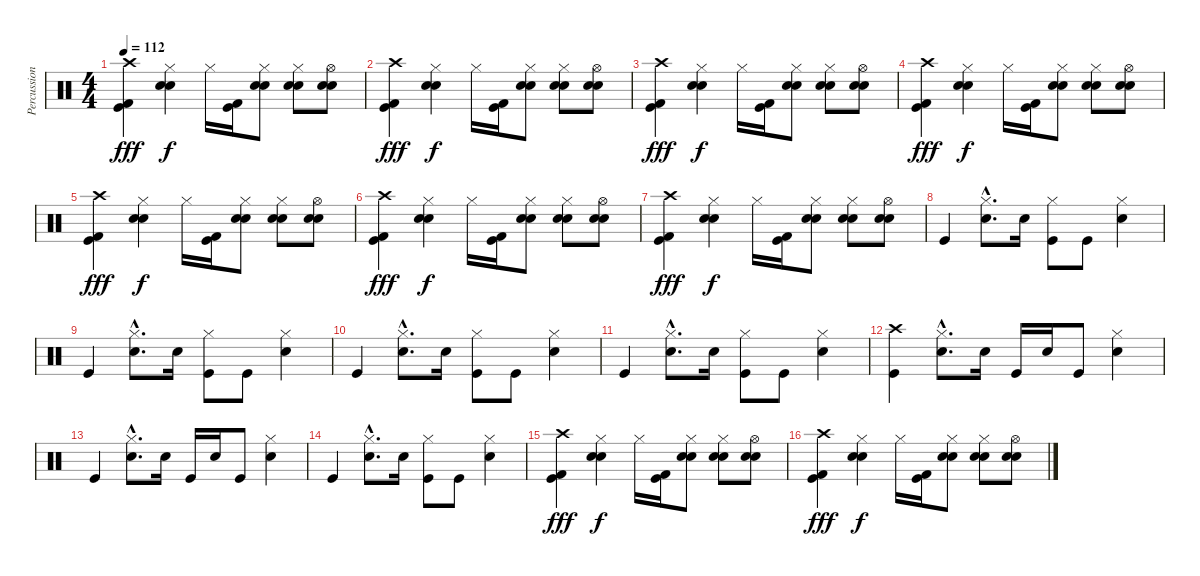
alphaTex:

\track ("Percussions" "Percussion") {instrument percussion}
\staff {score}
\articulation defaults
\ts (4 4)
\tempo 112
\clef neutral
\ks c
("Crash high (hit)" "Kick (hit)" "Kick (hit) 2").4{dy fff} ("Hi-Hat (closed)" "Snare (hit) 2" "Electric Snare (hit)").4{dy f} "Hi-Hat (closed)".16 ("Kick (hit)" "Kick (hit) 2").16 ("Hi-Hat (closed)" "Snare (hit) 2" "Electric Snare (hit)").8 ("Hi-Hat (closed)" "Snare (hit) 2" "Electric Snare (hit)").8 ("Hi-Hat (open)" "Snare (hit) 2" "Electric Snare (hit)").8 |
("Crash high (hit)" "Kick (hit)" "Kick (hit) 2").4{dy fff} ("Hi-Hat (closed)" "Snare (hit) 2" "Electric Snare (hit)").4{dy f} "Hi-Hat (closed)".16 ("Kick (hit)" "Kick (hit) 2").16 ("Hi-Hat (closed)" "Snare (hit) 2" "Electric Snare (hit)").8 ("Hi-Hat (closed)" "Snare (hit) 2" "Electric Snare (hit)").8 ("Hi-Hat (open)" "Snare (hit) 2" "Electric Snare (hit)").8 |
("Crash high (hit)" "Kick (hit)" "Kick (hit) 2").4{dy fff} ("Hi-Hat (closed)" "Snare (hit) 2" "Electric Snare (hit)").4{dy f} "Hi-Hat (closed)".16 ("Kick (hit)" "Kick (hit) 2").16 ("Hi-Hat (closed)" "Snare (hit) 2" "Electric Snare (hit)").8 ("Hi-Hat (closed)" "Snare (hit) 2" "Electric Snare (hit)").8 ("Hi-Hat (open)" "Snare (hit) 2" "Electric Snare (hit)").8 |
("Crash high (hit)" "Kick (hit)" "Kick (hit) 2").4{dy fff} ("Hi-Hat (closed)" "Snare (hit) 2" "Electric Snare (hit)").4{dy f} "Hi-Hat (closed)".16 ("Kick (hit)" "Kick (hit) 2").16 ("Hi-Hat (closed)" "Snare (hit) 2" "Electric Snare (hit)").8 ("Hi-Hat (closed)" "Snare (hit) 2" "Electric Snare (hit)").8 ("Hi-Hat (open)" "Snare (hit) 2" "Electric Snare (hit)").8 |
("Crash high (hit)" "Kick (hit)" "Kick (hit) 2").4{dy fff} ("Hi-Hat (closed)" "Snare (hit) 2" "Electric Snare (hit)").4{dy f} "Hi-Hat (closed)".16 ("Kick (hit)" "Kick (hit) 2").16 ("Hi-Hat (closed)" "Snare (hit) 2" "Electric Snare (hit)").8 ("Hi-Hat (closed)" "Snare (hit) 2" "Electric Snare (hit)").8 ("Hi-Hat (open)" "Snare (hit) 2" "Electric Snare (hit)").8 |
("Crash high (hit)" "Kick (hit)" "Kick (hit) 2").4{dy fff} ("Hi-Hat (closed)" "Snare (hit) 2" "Electric Snare (hit)").4{dy f} "Hi-Hat (closed)".16 ("Kick (hit)" "Kick (hit) 2").16 ("Hi-Hat (closed)" "Snare (hit) 2" "Electric Snare (hit)").8 ("Hi-Hat (closed)" "Snare (hit) 2" "Electric Snare (hit)").8 ("Hi-Hat (open)" "Snare (hit) 2" "Electric Snare (hit)").8 |
("Crash high (hit)" "Kick (hit)" "Kick (hit) 2").4{dy fff} ("Hi-Hat (closed)" "Snare (hit) 2" "Electric Snare (hit)").4{dy f} "Hi-Hat (closed)".16 ("Kick (hit)" "Kick (hit) 2").16 ("Hi-Hat (closed)" "Snare (hit) 2" "Electric Snare (hit)").8 ("Hi-Hat (closed)" "Snare (hit) 2" "Electric Snare (hit)").8 ("Hi-Hat (open)" "Snare (hit) 2" "Electric Snare (hit)").8 |
"Kick (hit)".4 ("Hi-Hat (closed)"{hac} "Snare (hit) 2"{hac}).8{d} "Snare (hit) 2".16 ("Hi-Hat (closed)" "Kick (hit)").8 "Kick (hit)".8 ("Hi-Hat (closed)" "Snare (hit) 2").4 |
"Kick (hit)".4 ("Hi-Hat (closed)"{hac} "Snare (hit) 2"{hac}).8{d} "Snare (hit) 2".16 ("Hi-Hat (closed)" "Kick (hit)").8 "Kick (hit)".8 ("Hi-Hat (closed)" "Snare (hit) 2").4 |
"Kick (hit)".4 ("Hi-Hat (closed)"{hac} "Snare (hit) 2"{hac}).8{d} "Snare (hit) 2".16 ("Hi-Hat (closed)" "Kick (hit)").8 "Kick (hit)".8 ("Hi-Hat (closed)" "Snare (hit) 2").4 |
"Kick (hit)".4 ("Hi-Hat (closed)"{hac} "Snare (hit) 2"{hac}).8{d} "Snare (hit) 2".16 ("Hi-Hat (closed)" "Kick (hit)").8 "Kick (hit)".8 ("Hi-Hat (closed)" "Snare (hit) 2").4 |
("Crash high (hit)" "Kick (hit)").4 ("Hi-Hat (closed)"{hac} "Snare (hit) 2"{hac}).8{d} "Snare (hit) 2".16 "Kick (hit)".16 "Snare (hit) 2".16 "Kick (hit)".8 ("Hi-Hat (closed)" "Snare (hit) 2").4 |
"Kick (hit)".4 ("Hi-Hat (closed)"{hac} "Snare (hit) 2"{hac}).8{d} "Snare (hit) 2".16 "Kick (hit)".16 "Snare (hit) 2".16 "Kick (hit)".8 ("Hi-Hat (closed)" "Snare (hit) 2").4 |
"Kick (hit)".4 ("Hi-Hat (closed)"{hac} "Snare (hit) 2"{hac}).8{d} "Snare (hit) 2".16 ("Hi-Hat (closed)" "Kick (hit)").8 "Kick (hit)".8 ("Hi-Hat (closed)" "Snare (hit) 2").4 |
("Crash high (hit)" "Kick (hit)" "Kick (hit) 2").4{dy fff} ("Hi-Hat (closed)" "Snare (hit) 2" "Electric Snare (hit)").4{dy f} "Hi-Hat (closed)".16 ("Kick (hit)" "Kick (hit) 2").16 ("Hi-Hat (closed)" "Snare (hit) 2" "Electric Snare (hit)").8 ("Hi-Hat (closed)" "Snare (hit) 2" "Electric Snare (hit)").8 ("Hi-Hat (open)" "Snare (hit) 2" "Electric Snare (hit)").8 |
("Crash high (hit)" "Kick (hit)" "Kick (hit) 2").4{dy fff} ("Hi-Hat (closed)" "Snare (hit) 2" "Electric Snare (hit)").4{dy f} "Hi-Hat (closed)".16 ("Kick (hit)" "Kick (hit) 2").16 ("Hi-Hat (closed)" "Snare (hit) 2" "Electric Snare (hit)").8 ("Hi-Hat (closed)" "Snare (hit) 2" "Electric Snare (hit)").8 ("Hi-Hat (open)" "Snare (hit) 2" "Electric Snare (hit)").8
